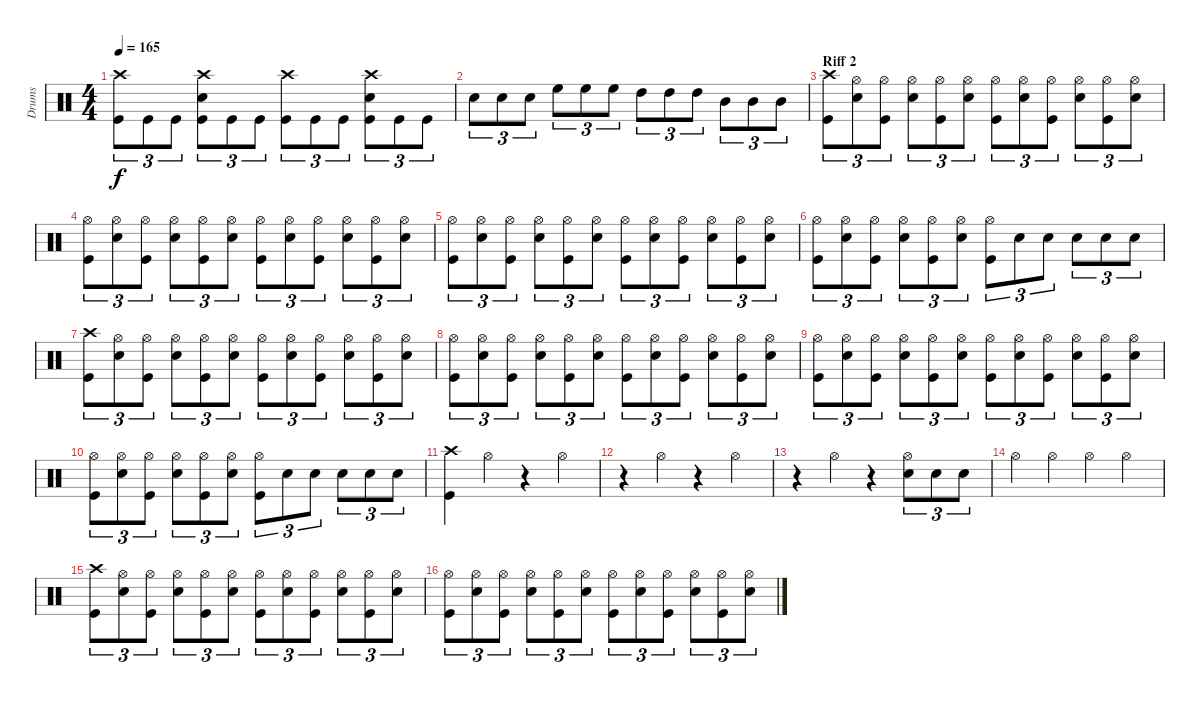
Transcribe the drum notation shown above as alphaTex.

\track ("Drums" "Drums") {instrument percussion}
\staff {score}
\articulation defaults
\ts (4 4)
\tempo 165
\clef neutral
\ks c
("Crash high (hit)" "Kick (hit)").8{tu (3 2) dy f} "Kick (hit)".8{tu (3 2)} "Kick (hit)".8{tu (3 2)} ("Crash high (hit)" "Electric Snare (hit)" "Kick (hit)").8{tu (3 2)} "Kick (hit)".8{tu (3 2)} "Kick (hit)".8{tu (3 2)} ("Crash high (hit)" "Kick (hit)").8{tu (3 2)} "Kick (hit)".8{tu (3 2)} "Kick (hit)".8{tu (3 2)} ("Crash high (hit)" "Electric Snare (hit)" "Kick (hit)").8{tu (3 2)} "Kick (hit)".8{tu (3 2)} "Kick (hit)".8{tu (3 2)} |
"Electric Snare (hit)".8{tu (3 2)} "Electric Snare (hit)".8{tu (3 2)} "Electric Snare (hit)".8{tu (3 2)} "High Floor Tom (hit)".8{tu (3 2)} "High Floor Tom (hit)".8{tu (3 2)} "High Floor Tom (hit)".8{tu (3 2)} "High Tom (hit)".8{tu (3 2)} "High Tom (hit)".8{tu (3 2)} "High Tom (hit)".8{tu (3 2)} "Mid Tom (hit)".8{tu (3 2)} "Mid Tom (hit)".8{tu (3 2)} "Mid Tom (hit)".8{tu (3 2)} |
\section ("" "Riff 2")
("Crash high (hit)" "Kick (hit)").8{tu (3 2)} ("Hi-Hat (open)" "Electric Snare (hit)").8{tu (3 2)} ("Hi-Hat (open)" "Kick (hit)").8{tu (3 2)} ("Hi-Hat (open)" "Electric Snare (hit)").8{tu (3 2)} ("Hi-Hat (open)" "Kick (hit)").8{tu (3 2)} ("Hi-Hat (open)" "Electric Snare (hit)").8{tu (3 2)} ("Hi-Hat (open)" "Kick (hit)").8{tu (3 2)} ("Hi-Hat (open)" "Electric Snare (hit)").8{tu (3 2)} ("Hi-Hat (open)" "Kick (hit)").8{tu (3 2)} ("Hi-Hat (open)" "Electric Snare (hit)").8{tu (3 2)} ("Hi-Hat (open)" "Kick (hit)").8{tu (3 2)} ("Hi-Hat (open)" "Electric Snare (hit)").8{tu (3 2)} |
("Hi-Hat (open)" "Kick (hit)").8{tu (3 2)} ("Hi-Hat (open)" "Electric Snare (hit)").8{tu (3 2)} ("Hi-Hat (open)" "Kick (hit)").8{tu (3 2)} ("Hi-Hat (open)" "Electric Snare (hit)").8{tu (3 2)} ("Hi-Hat (open)" "Kick (hit)").8{tu (3 2)} ("Hi-Hat (open)" "Electric Snare (hit)").8{tu (3 2)} ("Hi-Hat (open)" "Kick (hit)").8{tu (3 2)} ("Hi-Hat (open)" "Electric Snare (hit)").8{tu (3 2)} ("Hi-Hat (open)" "Kick (hit)").8{tu (3 2)} ("Hi-Hat (open)" "Electric Snare (hit)").8{tu (3 2)} ("Hi-Hat (open)" "Kick (hit)").8{tu (3 2)} ("Hi-Hat (open)" "Electric Snare (hit)").8{tu (3 2)} |
("Hi-Hat (open)" "Kick (hit)").8{tu (3 2)} ("Hi-Hat (open)" "Electric Snare (hit)").8{tu (3 2)} ("Hi-Hat (open)" "Kick (hit)").8{tu (3 2)} ("Hi-Hat (open)" "Electric Snare (hit)").8{tu (3 2)} ("Hi-Hat (open)" "Kick (hit)").8{tu (3 2)} ("Hi-Hat (open)" "Electric Snare (hit)").8{tu (3 2)} ("Hi-Hat (open)" "Kick (hit)").8{tu (3 2)} ("Hi-Hat (open)" "Electric Snare (hit)").8{tu (3 2)} ("Hi-Hat (open)" "Kick (hit)").8{tu (3 2)} ("Hi-Hat (open)" "Electric Snare (hit)").8{tu (3 2)} ("Hi-Hat (open)" "Kick (hit)").8{tu (3 2)} ("Hi-Hat (open)" "Electric Snare (hit)").8{tu (3 2)} |
("Hi-Hat (open)" "Kick (hit)").8{tu (3 2)} ("Hi-Hat (open)" "Electric Snare (hit)").8{tu (3 2)} ("Hi-Hat (open)" "Kick (hit)").8{tu (3 2)} ("Hi-Hat (open)" "Electric Snare (hit)").8{tu (3 2)} ("Hi-Hat (open)" "Kick (hit)").8{tu (3 2)} ("Hi-Hat (open)" "Electric Snare (hit)").8{tu (3 2)} ("Hi-Hat (open)" "Kick (hit)").8{tu (3 2)} "Electric Snare (hit)".8{tu (3 2)} "Electric Snare (hit)".8{tu (3 2)} "Electric Snare (hit)".8{tu (3 2)} "Electric Snare (hit)".8{tu (3 2)} "Electric Snare (hit)".8{tu (3 2)} |
("Crash high (hit)" "Kick (hit)").8{tu (3 2)} ("Hi-Hat (open)" "Electric Snare (hit)").8{tu (3 2)} ("Hi-Hat (open)" "Kick (hit)").8{tu (3 2)} ("Hi-Hat (open)" "Electric Snare (hit)").8{tu (3 2)} ("Hi-Hat (open)" "Kick (hit)").8{tu (3 2)} ("Hi-Hat (open)" "Electric Snare (hit)").8{tu (3 2)} ("Hi-Hat (open)" "Kick (hit)").8{tu (3 2)} ("Hi-Hat (open)" "Electric Snare (hit)").8{tu (3 2)} ("Hi-Hat (open)" "Kick (hit)").8{tu (3 2)} ("Hi-Hat (open)" "Electric Snare (hit)").8{tu (3 2)} ("Hi-Hat (open)" "Kick (hit)").8{tu (3 2)} ("Hi-Hat (open)" "Electric Snare (hit)").8{tu (3 2)} |
("Hi-Hat (open)" "Kick (hit)").8{tu (3 2)} ("Hi-Hat (open)" "Electric Snare (hit)").8{tu (3 2)} ("Hi-Hat (open)" "Kick (hit)").8{tu (3 2)} ("Hi-Hat (open)" "Electric Snare (hit)").8{tu (3 2)} ("Hi-Hat (open)" "Kick (hit)").8{tu (3 2)} ("Hi-Hat (open)" "Electric Snare (hit)").8{tu (3 2)} ("Hi-Hat (open)" "Kick (hit)").8{tu (3 2)} ("Hi-Hat (open)" "Electric Snare (hit)").8{tu (3 2)} ("Hi-Hat (open)" "Kick (hit)").8{tu (3 2)} ("Hi-Hat (open)" "Electric Snare (hit)").8{tu (3 2)} ("Hi-Hat (open)" "Kick (hit)").8{tu (3 2)} ("Hi-Hat (open)" "Electric Snare (hit)").8{tu (3 2)} |
("Hi-Hat (open)" "Kick (hit)").8{tu (3 2)} ("Hi-Hat (open)" "Electric Snare (hit)").8{tu (3 2)} ("Hi-Hat (open)" "Kick (hit)").8{tu (3 2)} ("Hi-Hat (open)" "Electric Snare (hit)").8{tu (3 2)} ("Hi-Hat (open)" "Kick (hit)").8{tu (3 2)} ("Hi-Hat (open)" "Electric Snare (hit)").8{tu (3 2)} ("Hi-Hat (open)" "Kick (hit)").8{tu (3 2)} ("Hi-Hat (open)" "Electric Snare (hit)").8{tu (3 2)} ("Hi-Hat (open)" "Kick (hit)").8{tu (3 2)} ("Hi-Hat (open)" "Electric Snare (hit)").8{tu (3 2)} ("Hi-Hat (open)" "Kick (hit)").8{tu (3 2)} ("Hi-Hat (open)" "Electric Snare (hit)").8{tu (3 2)} |
("Hi-Hat (open)" "Kick (hit)").8{tu (3 2)} ("Hi-Hat (open)" "Electric Snare (hit)").8{tu (3 2)} ("Hi-Hat (open)" "Kick (hit)").8{tu (3 2)} ("Hi-Hat (open)" "Electric Snare (hit)").8{tu (3 2)} ("Hi-Hat (open)" "Kick (hit)").8{tu (3 2)} ("Hi-Hat (open)" "Electric Snare (hit)").8{tu (3 2)} ("Hi-Hat (open)" "Kick (hit)").8{tu (3 2)} "Electric Snare (hit)".8{tu (3 2)} "Electric Snare (hit)".8{tu (3 2)} "Electric Snare (hit)".8{tu (3 2)} "Electric Snare (hit)".8{tu (3 2)} "Electric Snare (hit)".8{tu (3 2)} |
("Crash high (hit)" "Kick (hit)").4 "Hi-Hat (open)".4 r.4 "Hi-Hat (open)".4 |
r.4 "Hi-Hat (open)".4 r.4 "Hi-Hat (open)".4 |
r.4 "Hi-Hat (open)".4 r.4 ("Hi-Hat (open)" "Electric Snare (hit)").8{tu (3 2)} "Electric Snare (hit)".8{tu (3 2)} "Electric Snare (hit)".8{tu (3 2)} |
"Hi-Hat (open)".4 "Hi-Hat (open)".4 "Hi-Hat (open)".4 "Hi-Hat (open)".4 |
("Crash high (hit)" "Kick (hit)").8{tu (3 2)} ("Hi-Hat (open)" "Electric Snare (hit)").8{tu (3 2)} ("Hi-Hat (open)" "Kick (hit)").8{tu (3 2)} ("Hi-Hat (open)" "Electric Snare (hit)").8{tu (3 2)} ("Hi-Hat (open)" "Kick (hit)").8{tu (3 2)} ("Hi-Hat (open)" "Electric Snare (hit)").8{tu (3 2)} ("Hi-Hat (open)" "Kick (hit)").8{tu (3 2)} ("Hi-Hat (open)" "Electric Snare (hit)").8{tu (3 2)} ("Hi-Hat (open)" "Kick (hit)").8{tu (3 2)} ("Hi-Hat (open)" "Electric Snare (hit)").8{tu (3 2)} ("Hi-Hat (open)" "Kick (hit)").8{tu (3 2)} ("Hi-Hat (open)" "Electric Snare (hit)").8{tu (3 2)} |
("Hi-Hat (open)" "Kick (hit)").8{tu (3 2)} ("Hi-Hat (open)" "Electric Snare (hit)").8{tu (3 2)} ("Hi-Hat (open)" "Kick (hit)").8{tu (3 2)} ("Hi-Hat (open)" "Electric Snare (hit)").8{tu (3 2)} ("Hi-Hat (open)" "Kick (hit)").8{tu (3 2)} ("Hi-Hat (open)" "Electric Snare (hit)").8{tu (3 2)} ("Hi-Hat (open)" "Kick (hit)").8{tu (3 2)} ("Hi-Hat (open)" "Electric Snare (hit)").8{tu (3 2)} ("Hi-Hat (open)" "Kick (hit)").8{tu (3 2)} ("Hi-Hat (open)" "Electric Snare (hit)").8{tu (3 2)} ("Hi-Hat (open)" "Kick (hit)").8{tu (3 2)} ("Hi-Hat (open)" "Electric Snare (hit)").8{tu (3 2)}
